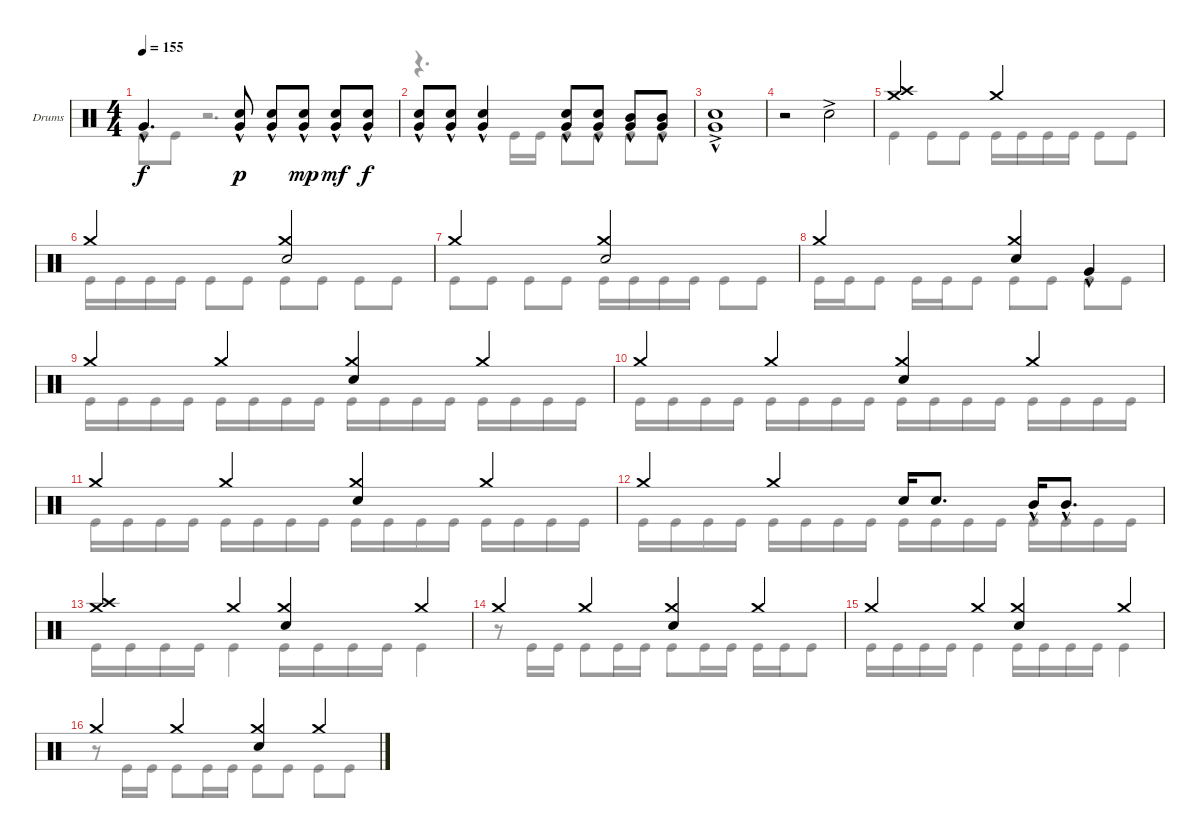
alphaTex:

\defaultSystemsLayout 4
\bracketExtendMode groupsimilarinstruments
\firstSystemTrackNameOrientation horizontal
\otherSystemsTrackNameOrientation horizontal
\track ("Drumkit" "Drums") {instrument percussion}
\staff {score}
\articulation defaults
\voice
\ts (4 4)
\tempo 155
\clef neutral
\scale
1.02648
\ks c "Very Low Tom (hit)"{hac}.4{d dy f}
("Snare (hit) 2" "Very Low Tom (hit)"{hac}).8{dy p} ("Snare (hit) 2" "Very Low Tom (hit)"{hac}).8 ("Snare (hit) 2" "Very Low Tom (hit)"{hac}).8{dy mp} ("Snare (hit) 2" "Very Low Tom (hit)"{hac}).8{dy mf} ("Snare (hit) 2" "Very Low Tom (hit)"{hac}).8{dy f} |
\scale
0.973518 ("Snare (hit) 2" "Very Low Tom (hit)"{hac}).8 ("Snare (hit) 2" "Very Low Tom (hit)"{hac}).8 ("Snare (hit) 2" "Very Low Tom (hit)"{hac}).4 ("Snare (hit) 2" "Very Low Tom (hit)"{hac}).8 ("Snare (hit) 2" "Very Low Tom (hit)"{hac}).8 ("Very Low Tom (hit)"{hac} "Mid Tom (hit)"{hac}).8 ("Very Low Tom (hit)"{hac} "Mid Tom (hit)"{hac}).8 |
\scale
1.02648 ("Snare (hit) 2"{ac} "Very Low Tom (hit)"{hac}).1 |
\scale
0.973518 r.2 "Snare (hit) 2"{ac}.2 |
\scale
1.02648 ("Crash medium (hit)" "Crash high (hit)").2 "Crash medium (hit)".2 |
\scale
0.973518 "Crash medium (hit)".2 ("Crash medium (hit)" "Snare (hit) 2").2 |
\scale
1.02648 "Crash medium (hit)".2 ("Crash medium (hit)" "Snare (hit) 2").2 |
\scale
0.973518 "Crash medium (hit)".2 ("Crash medium (hit)" "Snare (hit) 2").4 "Very Low Tom (hit)"{hac}.4 |
\scale
1.02648 "Crash medium (hit)".4 "Crash medium (hit)".4 ("Crash medium (hit)" "Snare (hit) 2").4 "Crash medium (hit)".4 |
\scale
0.973518 "Crash medium (hit)".4 "Crash medium (hit)".4 ("Crash medium (hit)" "Snare (hit) 2").4 "Crash medium (hit)".4 |
\scale
1.02648 "Crash medium (hit)".4 "Crash medium (hit)".4 ("Crash medium (hit)" "Snare (hit) 2").4 "Crash medium (hit)".4 |
\scale
0.973518 "Crash medium (hit)".4 "Crash medium (hit)".4 "Snare (hit) 2".16 "Snare (hit) 2".8{d} "Mid Tom (hit)"{hac}.16 "Mid Tom (hit)"{hac}.8{d} |
\scale
1.02648 ("Crash high (hit)" "Crash medium (hit)").4 "Crash medium (hit)".4 ("Snare (hit) 2" "Crash medium (hit)").4 "Crash medium (hit)".4 |
\scale
0.973518 "Crash medium (hit)".4 "Crash medium (hit)".4 ("Snare (hit) 2" "Crash medium (hit)").4 "Crash medium (hit)".4 |
\scale
1.02648 "Crash medium (hit)".4 "Crash medium (hit)".4 ("Snare (hit) 2" "Crash medium (hit)").4 "Crash medium (hit)".4 |
\scale
0.973518 "Crash medium (hit)".4 "Crash medium (hit)".4 ("Snare (hit) 2" "Crash medium (hit)").4 "Crash medium (hit)".4
\voice
\clef neutral
\ottava regular
\simile none
\scale
1.02648
\ks c "Kick (hit)".8{dy f} "Kick (hit)".8
r.2{d} |
\scale
0.973518 r.4{d} "Kick (hit)".16 "Kick (hit)".16 "Kick (hit)".8 "Kick (hit)".8 "Kick (hit)".8 "Kick (hit)".8 |
\scale
1.02648 |
\scale
0.973518 |
\scale
1.02648 "Kick (hit)".4 "Kick (hit)".8 "Kick (hit)".8 "Kick (hit)".16 "Kick (hit)".16 "Kick (hit)".16 "Kick (hit)".16 "Kick (hit)".8 "Kick (hit)".8 |
\scale
0.973518 "Kick (hit)".16 "Kick (hit)".16 "Kick (hit)".16 "Kick (hit)".16 "Kick (hit)".8 "Kick (hit)".8 "Kick (hit)".8 "Kick (hit)".8 "Kick (hit)".8 "Kick (hit)".8 |
\scale
1.02648 "Kick (hit)".8 "Kick (hit)".8 "Kick (hit)".8 "Kick (hit)".8 "Kick (hit)".16 "Kick (hit)".16 "Kick (hit)".16 "Kick (hit)".16 "Kick (hit)".8 "Kick (hit)".8 |
\scale
0.973518 "Kick (hit)".16 "Kick (hit)".16 "Kick (hit)".8 "Kick (hit)".16 "Kick (hit)".16 "Kick (hit)".8 "Kick (hit)".8 "Kick (hit)".8 "Kick (hit)".8 "Kick (hit)".8 |
\scale
1.02648 "Kick (hit)".16 "Kick (hit)".16 "Kick (hit)".16 "Kick (hit)".16 "Kick (hit)".16 "Kick (hit)".16 "Kick (hit)".16 "Kick (hit)".16 "Kick (hit)".16 "Kick (hit)".16 "Kick (hit)".16 "Kick (hit)".16 "Kick (hit)".16 "Kick (hit)".16 "Kick (hit)".16 "Kick (hit)".16 |
\scale
0.973518 "Kick (hit)".16 "Kick (hit)".16 "Kick (hit)".16 "Kick (hit)".16 "Kick (hit)".16 "Kick (hit)".16 "Kick (hit)".16 "Kick (hit)".16 "Kick (hit)".16 "Kick (hit)".16 "Kick (hit)".16 "Kick (hit)".16 "Kick (hit)".16 "Kick (hit)".16 "Kick (hit)".16 "Kick (hit)".16 |
\scale
1.02648 "Kick (hit)".16 "Kick (hit)".16 "Kick (hit)".16 "Kick (hit)".16 "Kick (hit)".16 "Kick (hit)".16 "Kick (hit)".16 "Kick (hit)".16 "Kick (hit)".16 "Kick (hit)".16 "Kick (hit)".16 "Kick (hit)".16 "Kick (hit)".16 "Kick (hit)".16 "Kick (hit)".16 "Kick (hit)".16 |
\scale
0.973518 "Kick (hit)".16 "Kick (hit)".16 "Kick (hit)".16 "Kick (hit)".16 "Kick (hit)".16 "Kick (hit)".16 "Kick (hit)".16 "Kick (hit)".16 "Kick (hit)".16 "Kick (hit)".16 "Kick (hit)".16 "Kick (hit)".16 "Kick (hit)".16 "Kick (hit)".16 "Kick (hit)".16 "Kick (hit)".16 |
\scale
1.02648 "Kick (hit)".16 "Kick (hit)".16 "Kick (hit)".16 "Kick (hit)".16 "Kick (hit)".4 "Kick (hit)".16 "Kick (hit)".16 "Kick (hit)".16 "Kick (hit)".16 "Kick (hit)".4 |
\scale
0.973518 r.8 "Kick (hit)".16 "Kick (hit)".16 "Kick (hit)".8 "Kick (hit)".16 "Kick (hit)".16 "Kick (hit)".8 "Kick (hit)".16 "Kick (hit)".16 "Kick (hit)".16 "Kick (hit)".16 "Kick (hit)".8 |
\scale
1.02648 "Kick (hit)".16 "Kick (hit)".16 "Kick (hit)".16 "Kick (hit)".16 "Kick (hit)".4 "Kick (hit)".16 "Kick (hit)".16 "Kick (hit)".16 "Kick (hit)".16 "Kick (hit)".4 |
\scale
0.973518 r.8 "Kick (hit)".16 "Kick (hit)".16 "Kick (hit)".8 "Kick (hit)".16 "Kick (hit)".16 "Kick (hit)".8 "Kick (hit)".8 "Kick (hit)".8 "Kick (hit)".8
